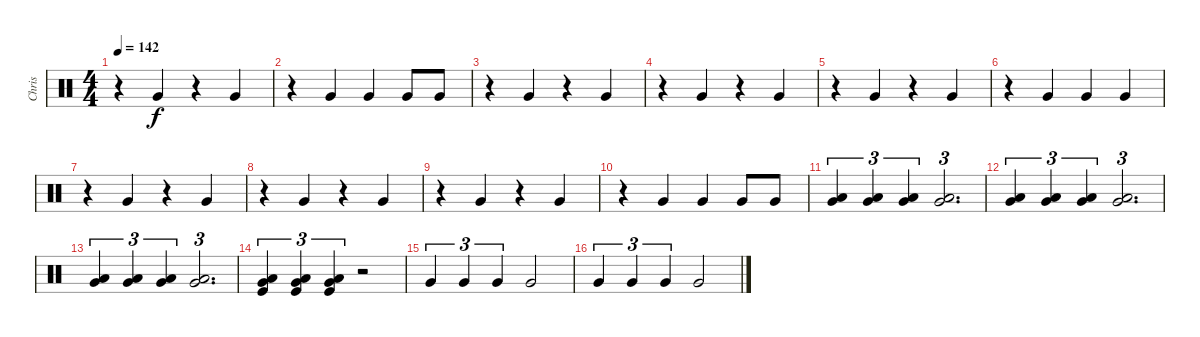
\track ("Chris" "Chris") {instrument percussion}
\staff {score}
\articulation defaults
\ts (4 4)
\tempo 142
\clef neutral
\ks c
r.4{dy f} "Very Low Tom (hit)".4 r.4 "Very Low Tom (hit)".4 |
r.4 "Very Low Tom (hit)".4 "Very Low Tom (hit)".4 "Very Low Tom (hit)".8 "Very Low Tom (hit)".8 |
r.4 "Very Low Tom (hit)".4 r.4 "Very Low Tom (hit)".4 |
r.4 "Very Low Tom (hit)".4 r.4 "Very Low Tom (hit)".4 |
r.4 "Very Low Tom (hit)".4 r.4 "Very Low Tom (hit)".4 |
r.4 "Very Low Tom (hit)".4 "Very Low Tom (hit)".4 "Very Low Tom (hit)".4 |
r.4 "Very Low Tom (hit)".4 r.4 "Very Low Tom (hit)".4 |
r.4 "Very Low Tom (hit)".4 r.4 "Very Low Tom (hit)".4 |
r.4 "Very Low Tom (hit)".4 r.4 "Very Low Tom (hit)".4 |
r.4 "Very Low Tom (hit)".4 "Very Low Tom (hit)".4 "Very Low Tom (hit)".8 "Very Low Tom (hit)".8 |
("Very Low Tom (hit)" "Low Floor Tom (hit)").4{tu (3 2)} ("Very Low Tom (hit)" "Low Floor Tom (hit)").4{tu (3 2)} ("Very Low Tom (hit)" "Low Floor Tom (hit)").4{tu (3 2)} ("Very Low Tom (hit)" "Low Floor Tom (hit)").2{d tu (3 2)} |
("Very Low Tom (hit)" "Low Floor Tom (hit)").4{tu (3 2)} ("Very Low Tom (hit)" "Low Floor Tom (hit)").4{tu (3 2)} ("Very Low Tom (hit)" "Low Floor Tom (hit)").4{tu (3 2)} ("Very Low Tom (hit)" "Low Floor Tom (hit)").2{d tu (3 2)} |
("Very Low Tom (hit)" "Low Floor Tom (hit)").4{tu (3 2)} ("Very Low Tom (hit)" "Low Floor Tom (hit)").4{tu (3 2)} ("Very Low Tom (hit)" "Low Floor Tom (hit)").4{tu (3 2)} ("Very Low Tom (hit)" "Low Floor Tom (hit)").2{d tu (3 2)} |
("Very Low Tom (hit)" "Low Floor Tom (hit)" "Kick (hit)").4{tu (3 2)} ("Very Low Tom (hit)" "Low Floor Tom (hit)" "Kick (hit)").4{tu (3 2)} ("Very Low Tom (hit)" "Low Floor Tom (hit)" "Kick (hit)").4{tu (3 2)} r.2 |
"Very Low Tom (hit)".4{tu (3 2)} "Very Low Tom (hit)".4{tu (3 2)} "Very Low Tom (hit)".4{tu (3 2)} "Very Low Tom (hit)".2 |
"Very Low Tom (hit)".4{tu (3 2)} "Very Low Tom (hit)".4{tu (3 2)} "Very Low Tom (hit)".4{tu (3 2)} "Very Low Tom (hit)".2
